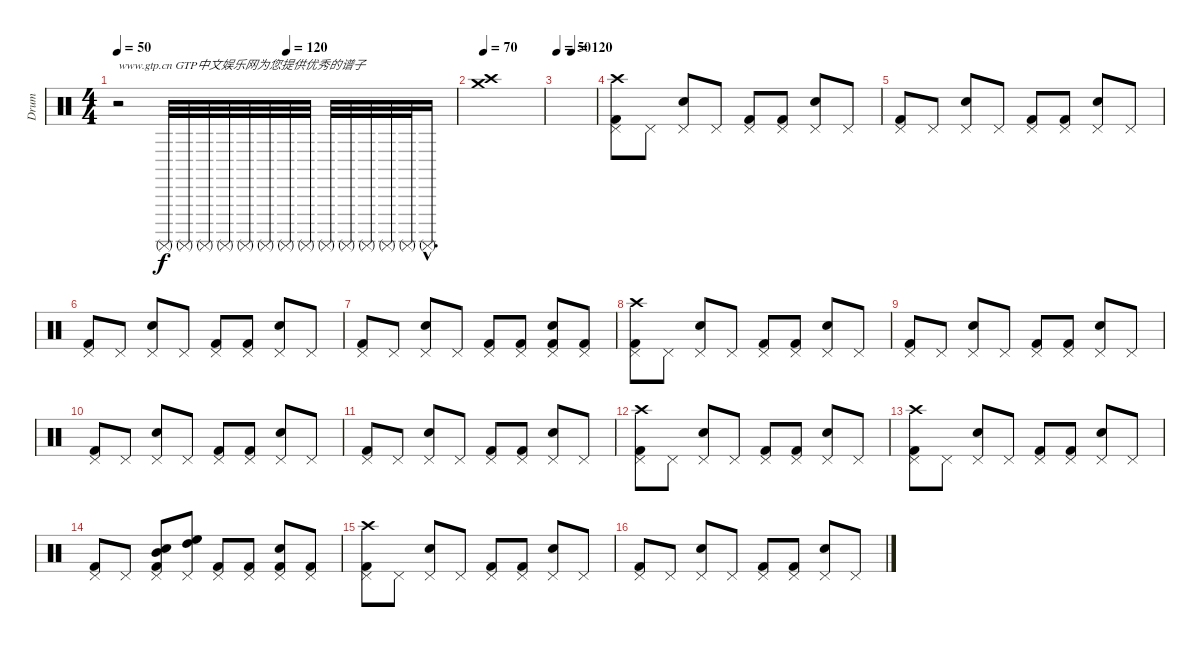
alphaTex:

\track ("Drum" "Drum") {instrument percussion}
\staff {score}
\articulation defaults
\ts (4 4)
\tempo 50
\tempo 30
\tempo (120 0.5)
\tempo 50
\clef neutral
\ks c
r.2{txt "www.gtp.cn GTP中文娱乐网为您提供优秀的谱子" dy f} "Surdo (mute)".32 "Surdo (mute)".32 "Surdo (mute)".32 "Surdo (mute)".32 "Surdo (mute)".32 "Surdo (mute)".32 "Surdo (mute)".32 "Surdo (mute)".32 "Surdo (mute)".32 "Surdo (mute)".32 "Surdo (mute)".32 "Surdo (mute)".32 "Surdo (mute)".32 "Surdo (mute)"{hac}.16{d} |
\tempo 70
("Crash medium (hit)" "Crash high (hit)").1 |
\tempo 50
\tempo (120 0.375)
|
("Crash high (hit)" "Pedal Hi-Hat (hit)" "Kick (hit) 2").8 "Pedal Hi-Hat (hit)".8 ("Snare (hit) 2" "Pedal Hi-Hat (hit)").8 "Pedal Hi-Hat (hit)".8 ("Pedal Hi-Hat (hit)" "Kick (hit) 2").8 ("Pedal Hi-Hat (hit)" "Kick (hit) 2").8 ("Snare (hit) 2" "Pedal Hi-Hat (hit)").8 "Pedal Hi-Hat (hit)".8 |
("Pedal Hi-Hat (hit)" "Kick (hit) 2").8 "Pedal Hi-Hat (hit)".8 ("Snare (hit) 2" "Pedal Hi-Hat (hit)").8 "Pedal Hi-Hat (hit)".8 ("Pedal Hi-Hat (hit)" "Kick (hit) 2").8 ("Pedal Hi-Hat (hit)" "Kick (hit) 2").8 ("Snare (hit) 2" "Pedal Hi-Hat (hit)").8 "Pedal Hi-Hat (hit)".8 |
("Pedal Hi-Hat (hit)" "Kick (hit) 2").8 "Pedal Hi-Hat (hit)".8 ("Snare (hit) 2" "Pedal Hi-Hat (hit)").8 "Pedal Hi-Hat (hit)".8 ("Pedal Hi-Hat (hit)" "Kick (hit) 2").8 ("Pedal Hi-Hat (hit)" "Kick (hit) 2").8 ("Snare (hit) 2" "Pedal Hi-Hat (hit)").8 "Pedal Hi-Hat (hit)".8 |
("Pedal Hi-Hat (hit)" "Kick (hit) 2").8 "Pedal Hi-Hat (hit)".8 ("Snare (hit) 2" "Pedal Hi-Hat (hit)").8 "Pedal Hi-Hat (hit)".8 ("Pedal Hi-Hat (hit)" "Kick (hit) 2").8 ("Pedal Hi-Hat (hit)" "Kick (hit) 2").8 ("Snare (hit) 2" "Pedal Hi-Hat (hit)" "Kick (hit) 2").8 ("Pedal Hi-Hat (hit)" "Kick (hit) 2").8 |
("Crash high (hit)" "Pedal Hi-Hat (hit)" "Kick (hit) 2").8 "Pedal Hi-Hat (hit)".8 ("Snare (hit) 2" "Pedal Hi-Hat (hit)").8 "Pedal Hi-Hat (hit)".8 ("Pedal Hi-Hat (hit)" "Kick (hit) 2").8 ("Pedal Hi-Hat (hit)" "Kick (hit) 2").8 ("Snare (hit) 2" "Pedal Hi-Hat (hit)").8 "Pedal Hi-Hat (hit)".8 |
("Pedal Hi-Hat (hit)" "Kick (hit) 2").8 "Pedal Hi-Hat (hit)".8 ("Snare (hit) 2" "Pedal Hi-Hat (hit)").8 "Pedal Hi-Hat (hit)".8 ("Pedal Hi-Hat (hit)" "Kick (hit) 2").8 ("Pedal Hi-Hat (hit)" "Kick (hit) 2").8 ("Snare (hit) 2" "Pedal Hi-Hat (hit)").8 "Pedal Hi-Hat (hit)".8 |
("Pedal Hi-Hat (hit)" "Kick (hit) 2").8 "Pedal Hi-Hat (hit)".8 ("Snare (hit) 2" "Pedal Hi-Hat (hit)").8 "Pedal Hi-Hat (hit)".8 ("Pedal Hi-Hat (hit)" "Kick (hit) 2").8 ("Pedal Hi-Hat (hit)" "Kick (hit) 2").8 ("Snare (hit) 2" "Pedal Hi-Hat (hit)").8 "Pedal Hi-Hat (hit)".8 |
("Pedal Hi-Hat (hit)" "Kick (hit) 2").8 "Pedal Hi-Hat (hit)".8 ("Snare (hit) 2" "Pedal Hi-Hat (hit)").8 "Pedal Hi-Hat (hit)".8 ("Pedal Hi-Hat (hit)" "Kick (hit) 2").8 ("Pedal Hi-Hat (hit)" "Kick (hit) 2").8 ("Snare (hit) 2" "Pedal Hi-Hat (hit)").8 "Pedal Hi-Hat (hit)".8 |
("Crash high (hit)" "Pedal Hi-Hat (hit)" "Kick (hit) 2").8 "Pedal Hi-Hat (hit)".8 ("Snare (hit) 2" "Pedal Hi-Hat (hit)").8 "Pedal Hi-Hat (hit)".8 ("Pedal Hi-Hat (hit)" "Kick (hit) 2").8 ("Pedal Hi-Hat (hit)" "Kick (hit) 2").8 ("Snare (hit) 2" "Pedal Hi-Hat (hit)").8 "Pedal Hi-Hat (hit)".8 |
("Crash high (hit)" "Pedal Hi-Hat (hit)" "Kick (hit) 2").8 "Pedal Hi-Hat (hit)".8 ("Snare (hit) 2" "Pedal Hi-Hat (hit)").8 "Pedal Hi-Hat (hit)".8 ("Pedal Hi-Hat (hit)" "Kick (hit) 2").8 ("Pedal Hi-Hat (hit)" "Kick (hit) 2").8 ("Snare (hit) 2" "Pedal Hi-Hat (hit)").8 "Pedal Hi-Hat (hit)".8 |
("Pedal Hi-Hat (hit)" "Kick (hit) 2").8 "Pedal Hi-Hat (hit)".8 ("Snare (hit) 2" "Pedal Hi-Hat (hit)" "Kick (hit) 2" "Mid Tom (hit)").8 ("Pedal Hi-Hat (hit)" "High Floor Tom (hit)" "High Tom (hit)").8 ("Pedal Hi-Hat (hit)" "Kick (hit) 2").8 ("Pedal Hi-Hat (hit)" "Kick (hit) 2").8 ("Snare (hit) 2" "Pedal Hi-Hat (hit)" "Kick (hit) 2").8 ("Pedal Hi-Hat (hit)" "Kick (hit) 2").8 |
("Crash high (hit)" "Pedal Hi-Hat (hit)" "Kick (hit) 2").8 "Pedal Hi-Hat (hit)".8 ("Snare (hit) 2" "Pedal Hi-Hat (hit)").8 "Pedal Hi-Hat (hit)".8 ("Pedal Hi-Hat (hit)" "Kick (hit) 2").8 ("Pedal Hi-Hat (hit)" "Kick (hit) 2").8 ("Snare (hit) 2" "Pedal Hi-Hat (hit)").8 "Pedal Hi-Hat (hit)".8 |
("Pedal Hi-Hat (hit)" "Kick (hit) 2").8 "Pedal Hi-Hat (hit)".8 ("Snare (hit) 2" "Pedal Hi-Hat (hit)").8 "Pedal Hi-Hat (hit)".8 ("Pedal Hi-Hat (hit)" "Kick (hit) 2").8 ("Pedal Hi-Hat (hit)" "Kick (hit) 2").8 ("Snare (hit) 2" "Pedal Hi-Hat (hit)").8 "Pedal Hi-Hat (hit)".8
